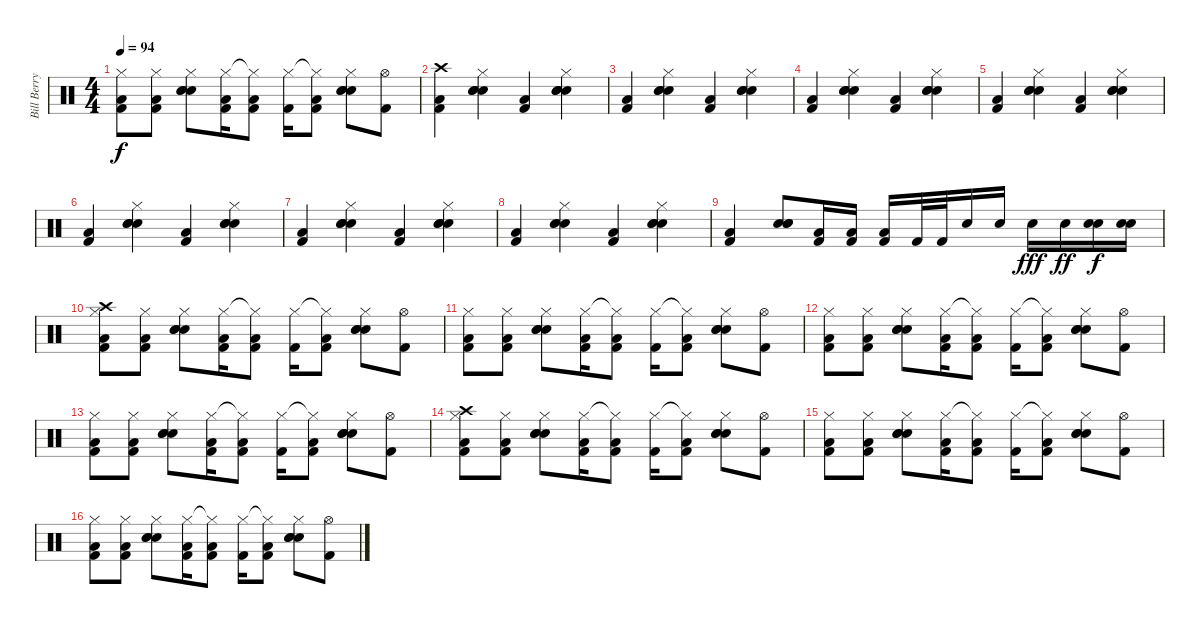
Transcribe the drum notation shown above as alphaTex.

\track ("Bill Berry - Drums" "Bill Berry") {instrument percussion}
\staff {score}
\articulation defaults
\ts (4 4)
\tempo 94
\clef neutral
\ks c
("Hi-Hat (closed)" "Kick (hit) 2" "Low Tom (hit)").8{dy f} ("Hi-Hat (closed)" "Kick (hit) 2" "Low Tom (hit)").8 ("Hi-Hat (closed)" "Electric Snare (hit)" "Snare (hit) 2" "Electric Snare (hit)").8 ("Hi-Hat (closed)" "Kick (hit) 2" "Low Tom (hit)").16 ("Hi-Hat (closed)"{t} "Kick (hit) 2" "Low Tom (hit)").8 ("Hi-Hat (closed)" "Kick (hit) 2").16 ("Hi-Hat (closed)"{t} "Kick (hit) 2" "Low Tom (hit)").8 ("Hi-Hat (closed)" "Electric Snare (hit)" "Snare (hit) 2" "Electric Snare (hit)").8 ("Hi-Hat (open)" "Kick (hit) 2").8 |
("Low Tom (hit)" "Kick (hit) 2" "Crash high (hit)").4 ("Hi-Hat (closed)" "Electric Snare (hit)" "Snare (hit) 2" "Electric Snare (hit)").4 ("Low Tom (hit)" "Kick (hit) 2").4 ("Hi-Hat (closed)" "Electric Snare (hit)" "Snare (hit) 2" "Electric Snare (hit)").4 |
("Low Tom (hit)" "Kick (hit) 2").4 ("Hi-Hat (closed)" "Electric Snare (hit)" "Snare (hit) 2" "Electric Snare (hit)").4 ("Low Tom (hit)" "Kick (hit) 2").4 ("Hi-Hat (closed)" "Electric Snare (hit)" "Snare (hit) 2" "Electric Snare (hit)").4 |
("Low Tom (hit)" "Kick (hit) 2").4 ("Hi-Hat (closed)" "Electric Snare (hit)" "Snare (hit) 2" "Electric Snare (hit)").4 ("Low Tom (hit)" "Kick (hit) 2").4 ("Hi-Hat (closed)" "Electric Snare (hit)" "Snare (hit) 2" "Electric Snare (hit)").4 |
("Low Tom (hit)" "Kick (hit) 2").4 ("Hi-Hat (closed)" "Electric Snare (hit)" "Snare (hit) 2" "Electric Snare (hit)").4 ("Low Tom (hit)" "Kick (hit) 2").4 ("Hi-Hat (closed)" "Electric Snare (hit)" "Snare (hit) 2" "Electric Snare (hit)").4 |
("Low Tom (hit)" "Kick (hit) 2").4 ("Hi-Hat (closed)" "Electric Snare (hit)" "Snare (hit) 2" "Electric Snare (hit)").4 ("Low Tom (hit)" "Kick (hit) 2").4 ("Hi-Hat (closed)" "Electric Snare (hit)" "Snare (hit) 2" "Electric Snare (hit)").4 |
("Low Tom (hit)" "Kick (hit) 2").4 ("Hi-Hat (closed)" "Electric Snare (hit)" "Snare (hit) 2" "Electric Snare (hit)").4 ("Low Tom (hit)" "Kick (hit) 2").4 ("Hi-Hat (closed)" "Electric Snare (hit)" "Snare (hit) 2" "Electric Snare (hit)").4 |
("Low Tom (hit)" "Kick (hit) 2").4 ("Hi-Hat (closed)" "Electric Snare (hit)" "Snare (hit) 2" "Electric Snare (hit)").4 ("Low Tom (hit)" "Kick (hit) 2").4 ("Hi-Hat (closed)" "Electric Snare (hit)" "Snare (hit) 2" "Electric Snare (hit)").4 |
("Low Tom (hit)" "Kick (hit) 2").4 ("Electric Snare (hit)" "Snare (hit) 2" "Electric Snare (hit)").8 ("Kick (hit) 2" "Low Tom (hit)").16 ("Kick (hit) 2" "Low Tom (hit)").16 ("Kick (hit) 2" "Low Tom (hit)").16 "Kick (hit) 2".32 "Kick (hit) 2".32 "Electric Snare (hit)".16 "Electric Snare (hit)".16 "Electric Snare (hit)".16{dy fff} "Electric Snare (hit)".16{dy ff} ("Snare (hit) 2" "Electric Snare (hit)").16{dy f} ("Snare (hit) 2" "Electric Snare (hit)").16 |
("Hi-Hat (closed)" "Kick (hit) 2" "Low Tom (hit)" "Crash high (hit)").8 ("Hi-Hat (closed)" "Kick (hit) 2" "Low Tom (hit)").8 ("Hi-Hat (closed)" "Electric Snare (hit)" "Snare (hit) 2" "Electric Snare (hit)").8 ("Hi-Hat (closed)" "Kick (hit) 2" "Low Tom (hit)").16 ("Hi-Hat (closed)"{t} "Kick (hit) 2" "Low Tom (hit)").8 ("Hi-Hat (closed)" "Kick (hit) 2").16 ("Hi-Hat (closed)"{t} "Kick (hit) 2" "Low Tom (hit)").8 ("Hi-Hat (closed)" "Electric Snare (hit)" "Snare (hit) 2" "Electric Snare (hit)").8 ("Hi-Hat (open)" "Kick (hit) 2").8 |
("Hi-Hat (closed)" "Kick (hit) 2" "Low Tom (hit)").8 ("Hi-Hat (closed)" "Kick (hit) 2" "Low Tom (hit)").8 ("Hi-Hat (closed)" "Electric Snare (hit)" "Snare (hit) 2" "Electric Snare (hit)").8 ("Hi-Hat (closed)" "Kick (hit) 2" "Low Tom (hit)").16 ("Hi-Hat (closed)"{t} "Kick (hit) 2" "Low Tom (hit)").8 ("Hi-Hat (closed)" "Kick (hit) 2").16 ("Hi-Hat (closed)"{t} "Kick (hit) 2" "Low Tom (hit)").8 ("Hi-Hat (closed)" "Electric Snare (hit)" "Snare (hit) 2" "Electric Snare (hit)").8 ("Hi-Hat (open)" "Kick (hit) 2").8 |
("Hi-Hat (closed)" "Kick (hit) 2" "Low Tom (hit)").8 ("Hi-Hat (closed)" "Kick (hit) 2" "Low Tom (hit)").8 ("Hi-Hat (closed)" "Electric Snare (hit)" "Snare (hit) 2" "Electric Snare (hit)").8 ("Hi-Hat (closed)" "Kick (hit) 2" "Low Tom (hit)").16 ("Hi-Hat (closed)"{t} "Kick (hit) 2" "Low Tom (hit)").8 ("Hi-Hat (closed)" "Kick (hit) 2").16 ("Hi-Hat (closed)"{t} "Kick (hit) 2" "Low Tom (hit)").8 ("Hi-Hat (closed)" "Electric Snare (hit)" "Snare (hit) 2" "Electric Snare (hit)").8 ("Hi-Hat (open)" "Kick (hit) 2").8 |
("Hi-Hat (closed)" "Kick (hit) 2" "Low Tom (hit)").8 ("Hi-Hat (closed)" "Kick (hit) 2" "Low Tom (hit)").8 ("Hi-Hat (closed)" "Electric Snare (hit)" "Snare (hit) 2" "Electric Snare (hit)").8 ("Hi-Hat (closed)" "Kick (hit) 2" "Low Tom (hit)").16 ("Hi-Hat (closed)"{t} "Kick (hit) 2" "Low Tom (hit)").8 ("Hi-Hat (closed)" "Kick (hit) 2").16 ("Hi-Hat (closed)"{t} "Kick (hit) 2" "Low Tom (hit)").8 ("Hi-Hat (closed)" "Electric Snare (hit)" "Snare (hit) 2" "Electric Snare (hit)").8 ("Hi-Hat (open)" "Kick (hit) 2").8 |
("Hi-Hat (closed)" "Kick (hit) 2" "Low Tom (hit)" "Crash high (hit)").8 ("Hi-Hat (closed)" "Kick (hit) 2" "Low Tom (hit)").8 ("Hi-Hat (closed)" "Electric Snare (hit)" "Snare (hit) 2" "Electric Snare (hit)").8 ("Hi-Hat (closed)" "Kick (hit) 2" "Low Tom (hit)").16 ("Hi-Hat (closed)"{t} "Kick (hit) 2" "Low Tom (hit)").8 ("Hi-Hat (closed)" "Kick (hit) 2").16 ("Hi-Hat (closed)"{t} "Kick (hit) 2" "Low Tom (hit)").8 ("Hi-Hat (closed)" "Electric Snare (hit)" "Snare (hit) 2" "Electric Snare (hit)").8 ("Hi-Hat (open)" "Kick (hit) 2").8 |
("Hi-Hat (closed)" "Kick (hit) 2" "Low Tom (hit)").8 ("Hi-Hat (closed)" "Kick (hit) 2" "Low Tom (hit)").8 ("Hi-Hat (closed)" "Electric Snare (hit)" "Snare (hit) 2" "Electric Snare (hit)").8 ("Hi-Hat (closed)" "Kick (hit) 2" "Low Tom (hit)").16 ("Hi-Hat (closed)"{t} "Kick (hit) 2" "Low Tom (hit)").8 ("Hi-Hat (closed)" "Kick (hit) 2").16 ("Hi-Hat (closed)"{t} "Kick (hit) 2" "Low Tom (hit)").8 ("Hi-Hat (closed)" "Electric Snare (hit)" "Snare (hit) 2" "Electric Snare (hit)").8 ("Hi-Hat (open)" "Kick (hit) 2").8 |
("Hi-Hat (closed)" "Kick (hit) 2" "Low Tom (hit)").8 ("Hi-Hat (closed)" "Kick (hit) 2" "Low Tom (hit)").8 ("Hi-Hat (closed)" "Electric Snare (hit)" "Snare (hit) 2" "Electric Snare (hit)").8 ("Hi-Hat (closed)" "Kick (hit) 2" "Low Tom (hit)").16 ("Hi-Hat (closed)"{t} "Kick (hit) 2" "Low Tom (hit)").8 ("Hi-Hat (closed)" "Kick (hit) 2").16 ("Hi-Hat (closed)"{t} "Kick (hit) 2" "Low Tom (hit)").8 ("Hi-Hat (closed)" "Electric Snare (hit)" "Snare (hit) 2" "Electric Snare (hit)").8 ("Hi-Hat (open)" "Kick (hit) 2").8
